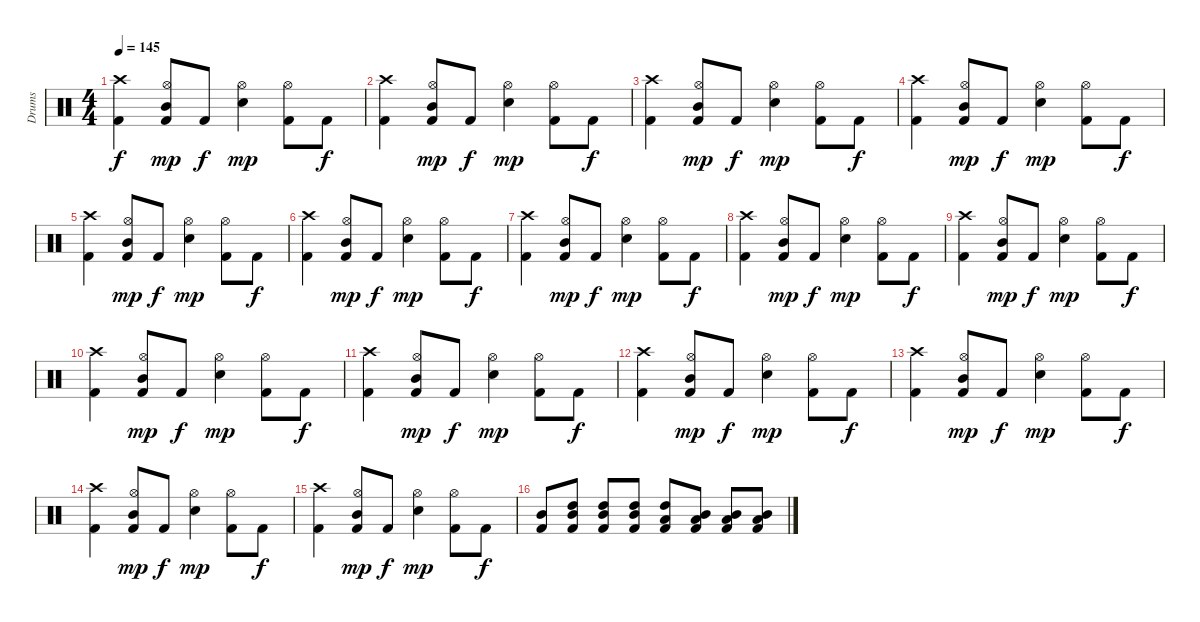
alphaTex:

\track ("Drums" "Drums") {instrument percussion}
\staff {score}
\articulation defaults
\ts (4 4)
\tempo 145
\clef neutral
\ks c
("Crash high (hit)" "Kick (hit) 2").4{dy f} ("Hi-Hat (open)" "Mid Tom (hit)" "Kick (hit) 2").8{dy mp} "Kick (hit) 2".8{dy f} ("Hi-Hat (open)" "Electric Snare (hit)").4{dy mp} ("Hi-Hat (open)" "Kick (hit) 2").8 "Kick (hit) 2".8{dy f} |
("Crash high (hit)" "Kick (hit) 2").4 ("Hi-Hat (open)" "Mid Tom (hit)" "Kick (hit) 2").8{dy mp} "Kick (hit) 2".8{dy f} ("Hi-Hat (open)" "Electric Snare (hit)").4{dy mp} ("Hi-Hat (open)" "Kick (hit) 2").8 "Kick (hit) 2".8{dy f} |
("Crash high (hit)" "Kick (hit) 2").4 ("Hi-Hat (open)" "Mid Tom (hit)" "Kick (hit) 2").8{dy mp} "Kick (hit) 2".8{dy f} ("Hi-Hat (open)" "Electric Snare (hit)").4{dy mp} ("Hi-Hat (open)" "Kick (hit) 2").8 "Kick (hit) 2".8{dy f} |
("Crash high (hit)" "Kick (hit) 2").4 ("Hi-Hat (open)" "Mid Tom (hit)" "Kick (hit) 2").8{dy mp} "Kick (hit) 2".8{dy f} ("Hi-Hat (open)" "Electric Snare (hit)").4{dy mp} ("Hi-Hat (open)" "Kick (hit) 2").8 "Kick (hit) 2".8{dy f} |
("Crash high (hit)" "Kick (hit) 2").4 ("Hi-Hat (open)" "Mid Tom (hit)" "Kick (hit) 2").8{dy mp} "Kick (hit) 2".8{dy f} ("Hi-Hat (open)" "Electric Snare (hit)").4{dy mp} ("Hi-Hat (open)" "Kick (hit) 2").8 "Kick (hit) 2".8{dy f} |
("Crash high (hit)" "Kick (hit) 2").4 ("Hi-Hat (open)" "Mid Tom (hit)" "Kick (hit) 2").8{dy mp} "Kick (hit) 2".8{dy f} ("Hi-Hat (open)" "Electric Snare (hit)").4{dy mp} ("Hi-Hat (open)" "Kick (hit) 2").8 "Kick (hit) 2".8{dy f} |
("Crash high (hit)" "Kick (hit) 2").4 ("Hi-Hat (open)" "Mid Tom (hit)" "Kick (hit) 2").8{dy mp} "Kick (hit) 2".8{dy f} ("Hi-Hat (open)" "Electric Snare (hit)").4{dy mp} ("Hi-Hat (open)" "Kick (hit) 2").8 "Kick (hit) 2".8{dy f} |
("Crash high (hit)" "Kick (hit) 2").4 ("Hi-Hat (open)" "Mid Tom (hit)" "Kick (hit) 2").8{dy mp} "Kick (hit) 2".8{dy f} ("Hi-Hat (open)" "Electric Snare (hit)").4{dy mp} ("Hi-Hat (open)" "Kick (hit) 2").8 "Kick (hit) 2".8{dy f} |
("Crash high (hit)" "Kick (hit) 2").4 ("Hi-Hat (open)" "Mid Tom (hit)" "Kick (hit) 2").8{dy mp} "Kick (hit) 2".8{dy f} ("Hi-Hat (open)" "Electric Snare (hit)").4{dy mp} ("Hi-Hat (open)" "Kick (hit) 2").8 "Kick (hit) 2".8{dy f} |
("Crash high (hit)" "Kick (hit) 2").4 ("Hi-Hat (open)" "Mid Tom (hit)" "Kick (hit) 2").8{dy mp} "Kick (hit) 2".8{dy f} ("Hi-Hat (open)" "Electric Snare (hit)").4{dy mp} ("Hi-Hat (open)" "Kick (hit) 2").8 "Kick (hit) 2".8{dy f} |
("Crash high (hit)" "Kick (hit) 2").4 ("Hi-Hat (open)" "Mid Tom (hit)" "Kick (hit) 2").8{dy mp} "Kick (hit) 2".8{dy f} ("Hi-Hat (open)" "Electric Snare (hit)").4{dy mp} ("Hi-Hat (open)" "Kick (hit) 2").8 "Kick (hit) 2".8{dy f} |
("Crash high (hit)" "Kick (hit) 2").4 ("Hi-Hat (open)" "Mid Tom (hit)" "Kick (hit) 2").8{dy mp} "Kick (hit) 2".8{dy f} ("Hi-Hat (open)" "Electric Snare (hit)").4{dy mp} ("Hi-Hat (open)" "Kick (hit) 2").8 "Kick (hit) 2".8{dy f} |
("Crash high (hit)" "Kick (hit) 2").4 ("Hi-Hat (open)" "Mid Tom (hit)" "Kick (hit) 2").8{dy mp} "Kick (hit) 2".8{dy f} ("Hi-Hat (open)" "Electric Snare (hit)").4{dy mp} ("Hi-Hat (open)" "Kick (hit) 2").8 "Kick (hit) 2".8{dy f} |
("Crash high (hit)" "Kick (hit) 2").4 ("Hi-Hat (open)" "Mid Tom (hit)" "Kick (hit) 2").8{dy mp} "Kick (hit) 2".8{dy f} ("Hi-Hat (open)" "Electric Snare (hit)").4{dy mp} ("Hi-Hat (open)" "Kick (hit) 2").8 "Kick (hit) 2".8{dy f} |
("Crash high (hit)" "Kick (hit) 2").4 ("Hi-Hat (open)" "Mid Tom (hit)" "Kick (hit) 2").8{dy mp} "Kick (hit) 2".8{dy f} ("Hi-Hat (open)" "Electric Snare (hit)").4{dy mp} ("Hi-Hat (open)" "Kick (hit) 2").8 "Kick (hit) 2".8{dy f} |
("Mid Tom (hit)" "Kick (hit) 2").8 ("High Tom (hit)" "Mid Tom (hit)" "Kick (hit) 2").8 ("High Tom (hit)" "Mid Tom (hit)" "Kick (hit) 2").8 ("High Tom (hit)" "Mid Tom (hit)" "Kick (hit) 2").8 ("High Tom (hit)" "Low Tom (hit)" "Kick (hit) 2").8 ("Mid Tom (hit)" "Low Tom (hit)" "Kick (hit) 2").8 ("Mid Tom (hit)" "Low Tom (hit)" "Kick (hit) 2").8 ("Mid Tom (hit)" "Low Tom (hit)" "Kick (hit) 2").8
